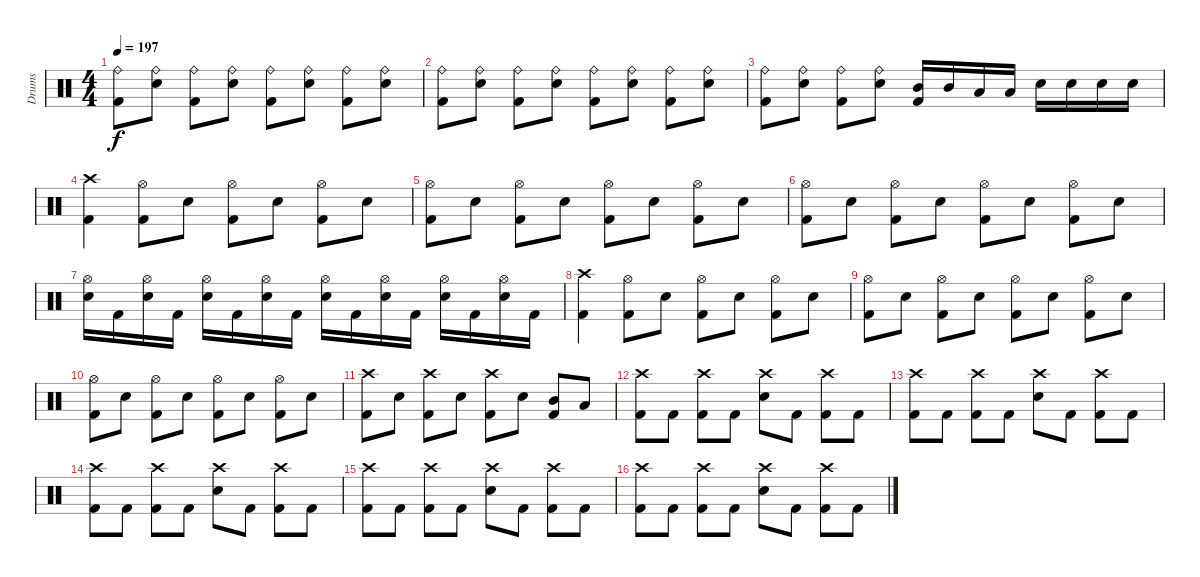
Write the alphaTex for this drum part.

\track ("Drums" "Drums") {instrument percussion}
\staff {score}
\articulation defaults
\ts (4 4)
\tempo 197
\clef neutral
\ks c
("Ride (bell)" "Kick (hit) 2").8{dy f} ("Ride (bell)" "Electric Snare (hit)").8 ("Ride (bell)" "Kick (hit) 2").8 ("Ride (bell)" "Electric Snare (hit)").8 ("Ride (bell)" "Kick (hit) 2").8 ("Ride (bell)" "Electric Snare (hit)").8 ("Ride (bell)" "Kick (hit) 2").8 ("Ride (bell)" "Electric Snare (hit)").8 |
("Ride (bell)" "Kick (hit) 2").8 ("Ride (bell)" "Electric Snare (hit)").8 ("Ride (bell)" "Kick (hit) 2").8 ("Ride (bell)" "Electric Snare (hit)").8 ("Ride (bell)" "Kick (hit) 2").8 ("Ride (bell)" "Electric Snare (hit)").8 ("Ride (bell)" "Kick (hit) 2").8 ("Ride (bell)" "Electric Snare (hit)").8 |
("Ride (bell)" "Kick (hit) 2").8 ("Ride (bell)" "Electric Snare (hit)").8 ("Ride (bell)" "Kick (hit) 2").8 ("Ride (bell)" "Electric Snare (hit)").8 ("Mid Tom (hit)" "Kick (hit) 2").16 "Mid Tom (hit)".16 "Low Tom (hit)".16 "Low Tom (hit)".16 "Electric Snare (hit)".16 "Electric Snare (hit)".16 "Electric Snare (hit)".16 "Electric Snare (hit)".16 |
("Crash high (hit)" "Kick (hit) 2").4 ("Hi-Hat (open)" "Kick (hit) 2").8 "Electric Snare (hit)".8 ("Hi-Hat (open)" "Kick (hit) 2").8 "Electric Snare (hit)".8 ("Hi-Hat (open)" "Kick (hit) 2").8 "Electric Snare (hit)".8 |
("Hi-Hat (open)" "Kick (hit) 2").8 "Electric Snare (hit)".8 ("Hi-Hat (open)" "Kick (hit) 2").8 "Electric Snare (hit)".8 ("Hi-Hat (open)" "Kick (hit) 2").8 "Electric Snare (hit)".8 ("Hi-Hat (open)" "Kick (hit) 2").8 "Electric Snare (hit)".8 |
("Hi-Hat (open)" "Kick (hit) 2").8 "Electric Snare (hit)".8 ("Hi-Hat (open)" "Kick (hit) 2").8 "Electric Snare (hit)".8 ("Hi-Hat (open)" "Kick (hit) 2").8 "Electric Snare (hit)".8 ("Hi-Hat (open)" "Kick (hit) 2").8 "Electric Snare (hit)".8 |
("Hi-Hat (open)" "Electric Snare (hit)").16 "Kick (hit) 2".16 ("Hi-Hat (open)" "Electric Snare (hit)").16 "Kick (hit) 2".16 ("Hi-Hat (open)" "Electric Snare (hit)").16 "Kick (hit) 2".16 ("Hi-Hat (open)" "Electric Snare (hit)").16 "Kick (hit) 2".16 ("Hi-Hat (open)" "Electric Snare (hit)").16 "Kick (hit) 2".16 ("Hi-Hat (open)" "Electric Snare (hit)").16 "Kick (hit) 2".16 ("Hi-Hat (open)" "Electric Snare (hit)").16 "Kick (hit) 2".16 ("Hi-Hat (open)" "Electric Snare (hit)").16 "Kick (hit) 2".16 |
("Crash high (hit)" "Kick (hit) 2").4 ("Hi-Hat (open)" "Kick (hit) 2").8 "Electric Snare (hit)".8 ("Hi-Hat (open)" "Kick (hit) 2").8 "Electric Snare (hit)".8 ("Hi-Hat (open)" "Kick (hit) 2").8 "Electric Snare (hit)".8 |
("Hi-Hat (open)" "Kick (hit) 2").8 "Electric Snare (hit)".8 ("Hi-Hat (open)" "Kick (hit) 2").8 "Electric Snare (hit)".8 ("Hi-Hat (open)" "Kick (hit) 2").8 "Electric Snare (hit)".8 ("Hi-Hat (open)" "Kick (hit) 2").8 "Electric Snare (hit)".8 |
("Hi-Hat (open)" "Kick (hit) 2").8 "Electric Snare (hit)".8 ("Hi-Hat (open)" "Kick (hit) 2").8 "Electric Snare (hit)".8 ("Hi-Hat (open)" "Kick (hit) 2").8 "Electric Snare (hit)".8 ("Hi-Hat (open)" "Kick (hit) 2").8 "Electric Snare (hit)".8 |
("Crash high (hit)" "Kick (hit) 2").8 "Electric Snare (hit)".8 ("Crash high (hit)" "Kick (hit) 2").8 "Electric Snare (hit)".8 ("Crash high (hit)" "Kick (hit) 2").8 "Electric Snare (hit)".8 ("Mid Tom (hit)" "Kick (hit) 2").8 "Low Tom (hit)".8 |
("Crash high (hit)" "Kick (hit) 2").8 "Kick (hit) 2".8 ("Crash high (hit)" "Kick (hit) 2").8 "Kick (hit) 2".8 ("Crash high (hit)" "Electric Snare (hit)").8 "Kick (hit) 2".8 ("Crash high (hit)" "Kick (hit) 2").8 "Kick (hit) 2".8 |
("Crash high (hit)" "Kick (hit) 2").8 "Kick (hit) 2".8 ("Crash high (hit)" "Kick (hit) 2").8 "Kick (hit) 2".8 ("Crash high (hit)" "Electric Snare (hit)").8 "Kick (hit) 2".8 ("Crash high (hit)" "Kick (hit) 2").8 "Kick (hit) 2".8 |
("Crash high (hit)" "Kick (hit) 2").8 "Kick (hit) 2".8 ("Crash high (hit)" "Kick (hit) 2").8 "Kick (hit) 2".8 ("Crash high (hit)" "Electric Snare (hit)").8 "Kick (hit) 2".8 ("Crash high (hit)" "Kick (hit) 2").8 "Kick (hit) 2".8 |
("Crash high (hit)" "Kick (hit) 2").8 "Kick (hit) 2".8 ("Crash high (hit)" "Kick (hit) 2").8 "Kick (hit) 2".8 ("Crash high (hit)" "Electric Snare (hit)").8 "Kick (hit) 2".8 ("Crash high (hit)" "Kick (hit) 2").8 "Kick (hit) 2".8 |
("Crash high (hit)" "Kick (hit) 2").8 "Kick (hit) 2".8 ("Crash high (hit)" "Kick (hit) 2").8 "Kick (hit) 2".8 ("Crash high (hit)" "Electric Snare (hit)").8 "Kick (hit) 2".8 ("Crash high (hit)" "Kick (hit) 2").8 "Kick (hit) 2".8
